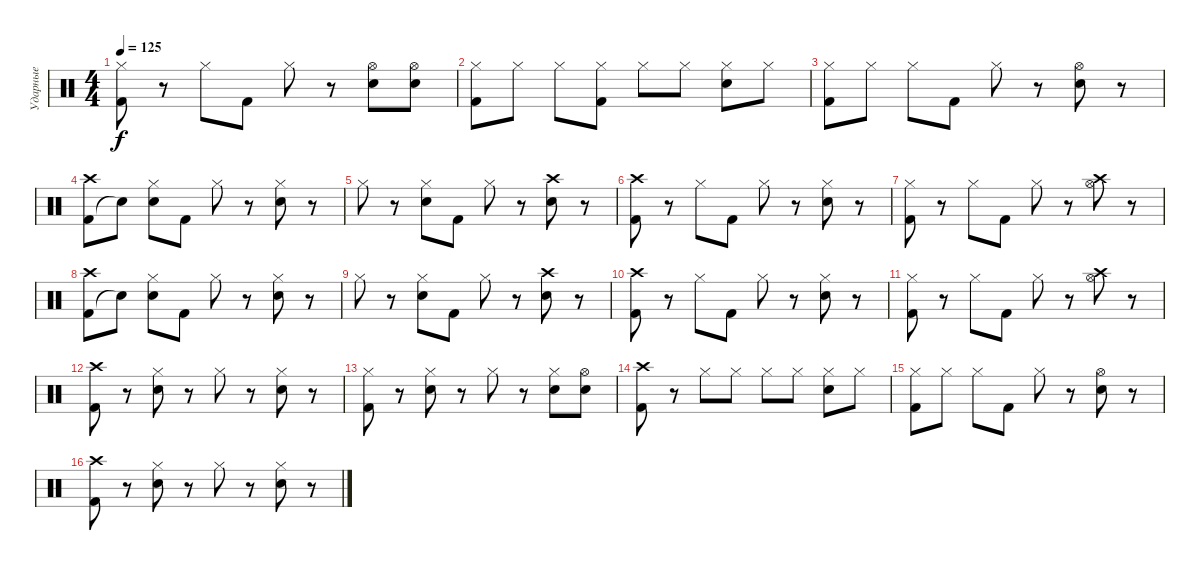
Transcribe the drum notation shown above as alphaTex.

\track ("Ударные" "Ударные") {instrument percussion}
\staff {score}
\articulation defaults
\ts (4 4)
\tempo 125
\clef neutral
\ks c
("Kick (hit) 2" "Hi-Hat (closed)").8{dy f} r.8 "Hi-Hat (closed)".8 "Kick (hit) 2".8 "Hi-Hat (closed)".8 r.8 ("Snare (hit) 2" "Hi-Hat (open)").8 ("Snare (hit) 2" "Hi-Hat (open)").8 |
("Hi-Hat (closed)" "Kick (hit) 2").8 "Hi-Hat (closed)".8 "Hi-Hat (closed)".8 ("Hi-Hat (closed)" "Kick (hit) 2").8 "Hi-Hat (closed)".8 "Hi-Hat (closed)".8 ("Hi-Hat (closed)" "Snare (hit) 2").8 "Hi-Hat (closed)".8 |
("Kick (hit) 2" "Hi-Hat (closed)").8 "Hi-Hat (closed)".8 "Hi-Hat (closed)".8 "Kick (hit) 2".8 "Hi-Hat (closed)".8 r.8 ("Snare (hit) 2" "Hi-Hat (open)").8 r.8 |
("Kick (hit) 2" "Crash high (hit)").8 "Snare (hit)"{t}.8 ("Hi-Hat (closed)" "Snare (hit) 2").8 "Kick (hit) 2".8 "Hi-Hat (closed)".8 r.8 ("Snare (hit) 2" "Hi-Hat (closed)").8 r.8 |
"Hi-Hat (closed)".8 r.8 ("Snare (hit) 2" "Hi-Hat (closed)").8 "Kick (hit) 2".8 "Hi-Hat (closed)".8 r.8 ("Crash high (hit)" "Snare (hit) 2").8 r.8 |
("Kick (hit) 2" "Crash high (hit)").8 r.8 "Hi-Hat (closed)".8 "Kick (hit) 2".8 "Hi-Hat (closed)".8 r.8 ("Snare (hit) 2" "Hi-Hat (closed)").8 r.8 |
("Kick (hit) 2" "Hi-Hat (closed)").8 r.8 "Hi-Hat (closed)".8 "Kick (hit) 2".8 "Hi-Hat (closed)".8 r.8 ("Crash high (hit)" "Hi-Hat (open)").8 r.8 |
("Kick (hit) 2" "Crash high (hit)").8 "Snare (hit)"{t}.8 ("Hi-Hat (closed)" "Snare (hit) 2").8 "Kick (hit) 2".8 "Hi-Hat (closed)".8 r.8 ("Snare (hit) 2" "Hi-Hat (closed)").8 r.8 |
"Hi-Hat (closed)".8 r.8 ("Snare (hit) 2" "Hi-Hat (closed)").8 "Kick (hit) 2".8 "Hi-Hat (closed)".8 r.8 ("Crash high (hit)" "Snare (hit) 2").8 r.8 |
("Kick (hit) 2" "Crash high (hit)").8 r.8 "Hi-Hat (closed)".8 "Kick (hit) 2".8 "Hi-Hat (closed)".8 r.8 ("Snare (hit) 2" "Hi-Hat (closed)").8 r.8 |
("Kick (hit) 2" "Hi-Hat (closed)").8 r.8 "Hi-Hat (closed)".8 "Kick (hit) 2".8 "Hi-Hat (closed)".8 r.8 ("Crash high (hit)" "Hi-Hat (open)").8 r.8 |
("Crash high (hit)" "Kick (hit) 2").8 r.8 ("Hi-Hat (closed)" "Snare (hit) 2").8 r.8 "Hi-Hat (closed)".8 r.8 ("Hi-Hat (closed)" "Snare (hit) 2").8 r.8 |
("Kick (hit) 2" "Hi-Hat (closed)").8 r.8 ("Snare (hit) 2" "Hi-Hat (closed)").8 r.8 "Hi-Hat (closed)".8 r.8 ("Snare (hit) 2" "Hi-Hat (closed)").8 ("Snare (hit) 2" "Hi-Hat (open)").8 |
("Crash high (hit)" "Kick (hit) 2").8 r.8 "Hi-Hat (closed)".8 "Hi-Hat (closed)".8 "Hi-Hat (closed)".8 "Hi-Hat (closed)".8 ("Snare (hit) 2" "Hi-Hat (closed)").8 "Hi-Hat (closed)".8 |
("Hi-Hat (closed)" "Kick (hit) 2").8 "Hi-Hat (closed)".8 "Hi-Hat (closed)".8 "Kick (hit) 2".8 "Hi-Hat (closed)".8 r.8 ("Hi-Hat (open)" "Snare (hit) 2").8 r.8 |
("Crash high (hit)" "Kick (hit) 2").8 r.8 ("Hi-Hat (closed)" "Snare (hit) 2").8 r.8 "Hi-Hat (closed)".8 r.8 ("Hi-Hat (closed)" "Snare (hit) 2").8 r.8
